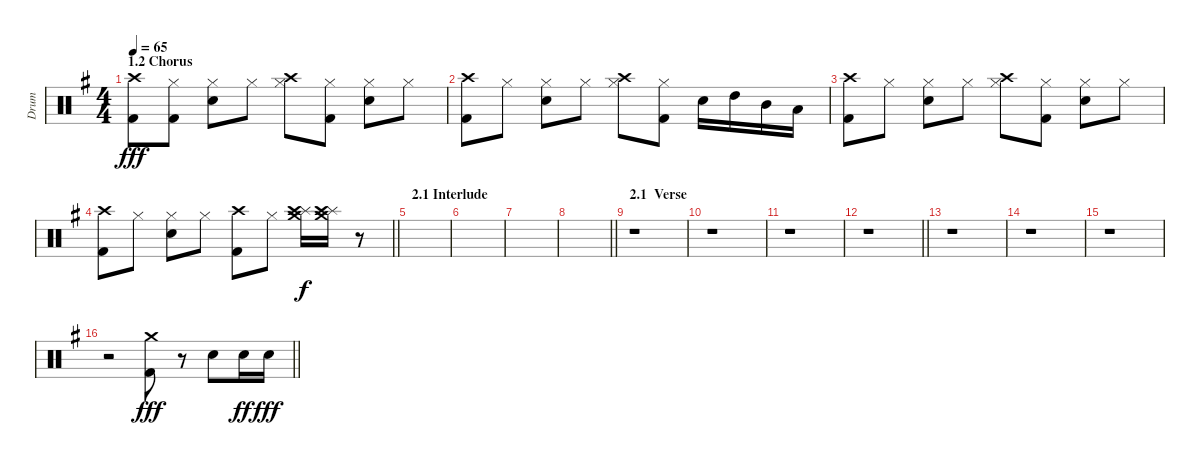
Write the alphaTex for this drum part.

\track ("Drum" "Drum") {instrument percussion}
\staff {score}
\articulation defaults
\ts (4 4)
\section ("" "1.2 Chorus")
\tempo 65
\clef neutral
\ks eminor
("Crash high (hit)" "Kick (hit) 2").8{dy fff} ("Kick (hit) 2" "Hi-Hat (closed)").8 ("Electric Snare (hit)" "Hi-Hat (closed)").8 "Hi-Hat (closed)".8 ("Crash high (hit)" "Hi-Hat (closed)").8 ("Kick (hit) 2" "Hi-Hat (closed)").8 ("Electric Snare (hit)" "Hi-Hat (closed)").8 "Hi-Hat (closed)".8 |
("Crash high (hit)" "Kick (hit) 2").8 "Hi-Hat (closed)".8 ("Electric Snare (hit)" "Hi-Hat (closed)").8 "Hi-Hat (closed)".8 ("Crash high (hit)" "Hi-Hat (closed)").8 ("Kick (hit) 2" "Hi-Hat (closed)").8 "Electric Snare (hit)".16 "High Tom (hit)".16 "Mid Tom (hit)".16 "Low Tom (hit)".16 |
("Crash high (hit)" "Kick (hit) 2").8 "Hi-Hat (closed)".8 ("Electric Snare (hit)" "Hi-Hat (closed)").8 "Hi-Hat (closed)".8 ("Crash high (hit)" "Hi-Hat (closed)").8 ("Kick (hit) 2" "Hi-Hat (closed)").8 ("Electric Snare (hit)" "Hi-Hat (closed)").8 "Hi-Hat (closed)".8 |
\barLineRight lightlight
("Crash high (hit)" "Kick (hit) 2").8 "Hi-Hat (closed)".8 ("Electric Snare (hit)" "Hi-Hat (closed)").8 "Hi-Hat (closed)".8 ("Crash high (hit)" "Kick (hit) 2").8 "Hi-Hat (closed)".8 ("Splash (hit)" "Crash medium (hit)" "Crash high (hit)").16{dy f} ("Splash (hit)" "Crash medium (hit)" "Crash high (hit)").16 r.8 |
\section ("" "2.1 Interlude")
|
|
|
\barLineRight lightlight
|
\section ("" "2.1  Verse")
r.1 |
r.1 |
r.1 |
\barLineRight lightlight
r.1 |
r.1 |
r.1 |
r.1 |
\barLineRight lightlight
r.2 ("Crash medium (hit)" "Kick (hit) 2").8{dy fff} r.8 "Electric Snare (hit)".8 "Electric Snare (hit)".16{dy ff} "Electric Snare (hit)".16{dy fff}
